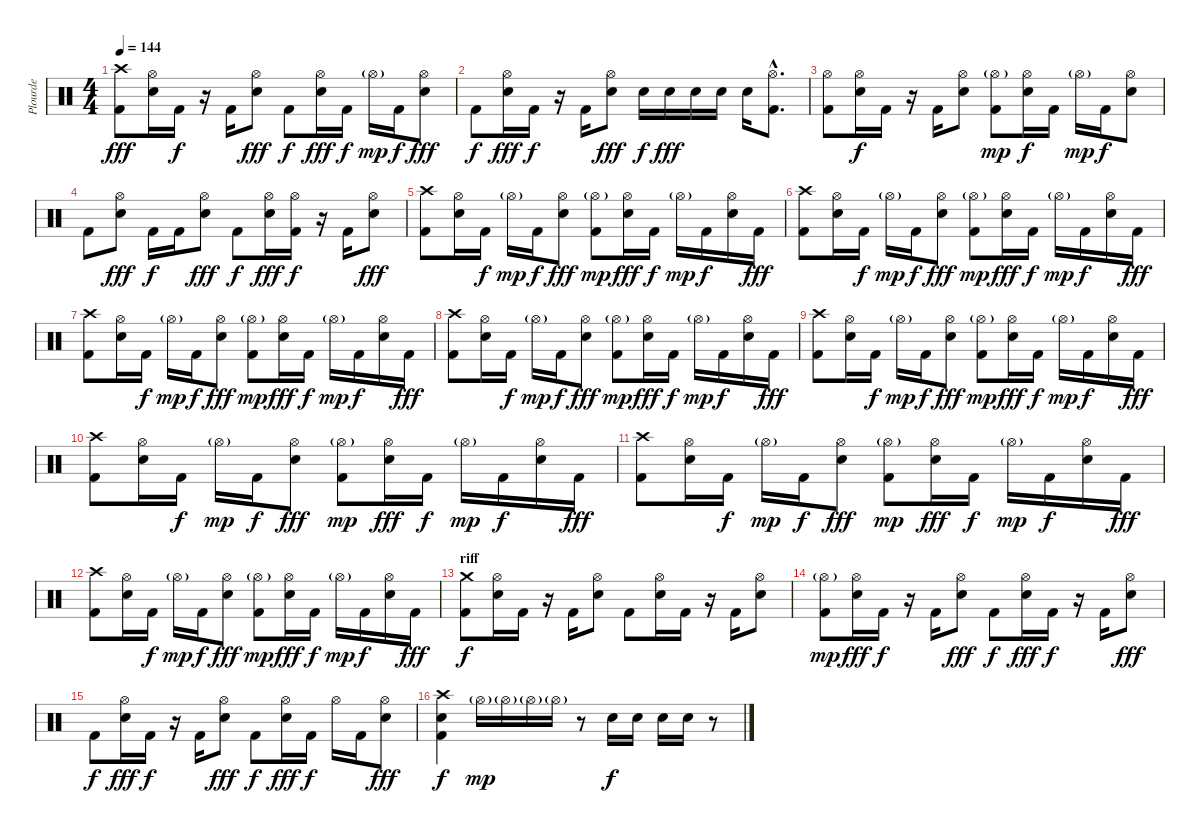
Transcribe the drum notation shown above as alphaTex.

\track ("Plourde" "Plourde") {instrument percussion}
\staff {score}
\articulation defaults
\ts (4 4)
\tempo 144
\clef neutral
\ks c
("Crash high (hit)" "Kick (hit) 2").8{dy fff} ("Hi-Hat (open)" "Electric Snare (hit)").16 "Kick (hit) 2".16{dy f} r.16 "Kick (hit) 2".16 ("Hi-Hat (open)" "Electric Snare (hit)").8{dy fff} "Kick (hit) 2".8{dy f} ("Hi-Hat (open)" "Electric Snare (hit)").16{dy fff} "Kick (hit) 2".16{dy f} "Hi-Hat (open)"{g}.16{dy mp} "Kick (hit) 2".16{dy f} ("Hi-Hat (open)" "Electric Snare (hit)").8{dy fff} |
"Kick (hit) 2".8{dy f} ("Hi-Hat (open)" "Electric Snare (hit)").16{dy fff} "Kick (hit) 2".16{dy f} r.16 "Kick (hit) 2".16 ("Hi-Hat (open)" "Electric Snare (hit)").8{dy fff} "Electric Snare (hit)".16{dy f} "Electric Snare (hit)".16{dy fff} "Electric Snare (hit)".16 "Electric Snare (hit)".16 "Electric Snare (hit)".16 ("Hi-Hat (open)"{hac} "Kick (hit) 2"{hac}).8{d} |
("Hi-Hat (open)" "Kick (hit) 2").8 ("Hi-Hat (open)" "Electric Snare (hit)").16{dy f} "Kick (hit) 2".16 r.16 "Kick (hit) 2".16 ("Hi-Hat (open)" "Electric Snare (hit)").8 ("Hi-Hat (open)"{g} "Kick (hit) 2").8{dy mp} ("Hi-Hat (open)" "Electric Snare (hit)").16{dy f} "Kick (hit) 2".16 "Hi-Hat (open)"{g}.16{dy mp} "Kick (hit) 2".16{dy f} ("Hi-Hat (open)" "Electric Snare (hit)").8 |
"Kick (hit) 2".8 ("Hi-Hat (open)" "Electric Snare (hit)").8{dy fff} "Kick (hit) 2".16{dy f} "Kick (hit) 2".16 ("Hi-Hat (open)" "Electric Snare (hit)").8{dy fff} "Kick (hit) 2".8{dy f} ("Hi-Hat (open)" "Electric Snare (hit)").16{dy fff} ("Hi-Hat (open)" "Kick (hit) 2").16{dy f} r.16 "Kick (hit) 2".16 ("Hi-Hat (open)" "Electric Snare (hit)").8{dy fff} |
("Crash high (hit)" "Kick (hit) 2").8 ("Hi-Hat (open)" "Electric Snare (hit)").16 "Kick (hit) 2".16{dy f} "Hi-Hat (open)"{g}.16{dy mp} "Kick (hit) 2".16{dy f} ("Hi-Hat (open)" "Electric Snare (hit)").8{dy fff} ("Hi-Hat (open)"{g} "Kick (hit) 2").8{dy mp} ("Hi-Hat (open)" "Electric Snare (hit)").16{dy fff} "Kick (hit) 2".16{dy f} "Hi-Hat (open)"{g}.16{dy mp} "Kick (hit) 2".16{dy f} ("Hi-Hat (open)" "Electric Snare (hit)").16 "Kick (hit) 2".16{dy fff} |
("Crash high (hit)" "Kick (hit) 2").8 ("Hi-Hat (open)" "Electric Snare (hit)").16 "Kick (hit) 2".16{dy f} "Hi-Hat (open)"{g}.16{dy mp} "Kick (hit) 2".16{dy f} ("Hi-Hat (open)" "Electric Snare (hit)").8{dy fff} ("Hi-Hat (open)"{g} "Kick (hit) 2").8{dy mp} ("Hi-Hat (open)" "Electric Snare (hit)").16{dy fff} "Kick (hit) 2".16{dy f} "Hi-Hat (open)"{g}.16{dy mp} "Kick (hit) 2".16{dy f} ("Hi-Hat (open)" "Electric Snare (hit)").16 "Kick (hit) 2".16{dy fff} |
("Crash high (hit)" "Kick (hit) 2").8 ("Hi-Hat (open)" "Electric Snare (hit)").16 "Kick (hit) 2".16{dy f} "Hi-Hat (open)"{g}.16{dy mp} "Kick (hit) 2".16{dy f} ("Hi-Hat (open)" "Electric Snare (hit)").8{dy fff} ("Hi-Hat (open)"{g} "Kick (hit) 2").8{dy mp} ("Hi-Hat (open)" "Electric Snare (hit)").16{dy fff} "Kick (hit) 2".16{dy f} "Hi-Hat (open)"{g}.16{dy mp} "Kick (hit) 2".16{dy f} ("Hi-Hat (open)" "Electric Snare (hit)").16 "Kick (hit) 2".16{dy fff} |
("Crash high (hit)" "Kick (hit) 2").8 ("Hi-Hat (open)" "Electric Snare (hit)").16 "Kick (hit) 2".16{dy f} "Hi-Hat (open)"{g}.16{dy mp} "Kick (hit) 2".16{dy f} ("Hi-Hat (open)" "Electric Snare (hit)").8{dy fff} ("Hi-Hat (open)"{g} "Kick (hit) 2").8{dy mp} ("Hi-Hat (open)" "Electric Snare (hit)").16{dy fff} "Kick (hit) 2".16{dy f} "Hi-Hat (open)"{g}.16{dy mp} "Kick (hit) 2".16{dy f} ("Hi-Hat (open)" "Electric Snare (hit)").16 "Kick (hit) 2".16{dy fff} |
("Crash high (hit)" "Kick (hit) 2").8 ("Hi-Hat (open)" "Electric Snare (hit)").16 "Kick (hit) 2".16{dy f} "Hi-Hat (open)"{g}.16{dy mp} "Kick (hit) 2".16{dy f} ("Hi-Hat (open)" "Electric Snare (hit)").8{dy fff} ("Hi-Hat (open)"{g} "Kick (hit) 2").8{dy mp} ("Hi-Hat (open)" "Electric Snare (hit)").16{dy fff} "Kick (hit) 2".16{dy f} "Hi-Hat (open)"{g}.16{dy mp} "Kick (hit) 2".16{dy f} ("Hi-Hat (open)" "Electric Snare (hit)").16 "Kick (hit) 2".16{dy fff} |
("Crash high (hit)" "Kick (hit) 2").8 ("Hi-Hat (open)" "Electric Snare (hit)").16 "Kick (hit) 2".16{dy f} "Hi-Hat (open)"{g}.16{dy mp} "Kick (hit) 2".16{dy f} ("Hi-Hat (open)" "Electric Snare (hit)").8{dy fff} ("Hi-Hat (open)"{g} "Kick (hit) 2").8{dy mp} ("Hi-Hat (open)" "Electric Snare (hit)").16{dy fff} "Kick (hit) 2".16{dy f} "Hi-Hat (open)"{g}.16{dy mp} "Kick (hit) 2".16{dy f} ("Hi-Hat (open)" "Electric Snare (hit)").16 "Kick (hit) 2".16{dy fff} |
("Crash high (hit)" "Kick (hit) 2").8 ("Hi-Hat (open)" "Electric Snare (hit)").16 "Kick (hit) 2".16{dy f} "Hi-Hat (open)"{g}.16{dy mp} "Kick (hit) 2".16{dy f} ("Hi-Hat (open)" "Electric Snare (hit)").8{dy fff} ("Hi-Hat (open)"{g} "Kick (hit) 2").8{dy mp} ("Hi-Hat (open)" "Electric Snare (hit)").16{dy fff} "Kick (hit) 2".16{dy f} "Hi-Hat (open)"{g}.16{dy mp} "Kick (hit) 2".16{dy f} ("Hi-Hat (open)" "Electric Snare (hit)").16 "Kick (hit) 2".16{dy fff} |
("Crash high (hit)" "Kick (hit) 2").8 ("Hi-Hat (open)" "Electric Snare (hit)").16 "Kick (hit) 2".16{dy f} "Hi-Hat (open)"{g}.16{dy mp} "Kick (hit) 2".16{dy f} ("Hi-Hat (open)" "Electric Snare (hit)").8{dy fff} ("Hi-Hat (open)"{g} "Kick (hit) 2").8{dy mp} ("Hi-Hat (open)" "Electric Snare (hit)").16{dy fff} "Kick (hit) 2".16{dy f} "Hi-Hat (open)"{g}.16{dy mp} "Kick (hit) 2".16{dy f} ("Hi-Hat (open)" "Electric Snare (hit)").16 "Kick (hit) 2".16{dy fff} |
\section ("" "riff")
("Crash medium (hit)" "Kick (hit) 2").8{dy f} ("Hi-Hat (open)" "Electric Snare (hit)").16 "Kick (hit) 2".16 r.16 "Kick (hit) 2".16 ("Hi-Hat (open)" "Electric Snare (hit)").8 "Kick (hit) 2".8 ("Hi-Hat (open)" "Electric Snare (hit)").16 "Kick (hit) 2".16 r.16 "Kick (hit) 2".16 ("Hi-Hat (open)" "Electric Snare (hit)").8 |
("Hi-Hat (open)"{g} "Kick (hit) 2").8{dy mp} ("Hi-Hat (open)" "Electric Snare (hit)").16{dy fff} "Kick (hit) 2".16{dy f} r.16 "Kick (hit) 2".16 ("Hi-Hat (open)" "Electric Snare (hit)").8{dy fff} "Kick (hit) 2".8{dy f} ("Hi-Hat (open)" "Electric Snare (hit)").16{dy fff} "Kick (hit) 2".16{dy f} r.16 "Kick (hit) 2".16 ("Hi-Hat (open)" "Electric Snare (hit)").8{dy fff} |
"Kick (hit) 2".8{dy f} ("Hi-Hat (open)" "Electric Snare (hit)").16{dy fff} "Kick (hit) 2".16{dy f} r.16 "Kick (hit) 2".16 ("Hi-Hat (open)" "Electric Snare (hit)").8{dy fff} "Kick (hit) 2".8{dy f} ("Hi-Hat (open)" "Electric Snare (hit)").16{dy fff} "Kick (hit) 2".16{dy f} "Hi-Hat (open)".16 "Kick (hit) 2".16 ("Hi-Hat (open)" "Electric Snare (hit)").8{dy fff} |
("Crash high (hit)" "Kick (hit) 2" "Electric Snare (hit)").4{dy f} "Hi-Hat (open)"{g}.16{dy mp} "Hi-Hat (open)"{g}.16 "Hi-Hat (open)"{g}.16 "Hi-Hat (open)"{g}.16 r.8 "Electric Snare (hit)".16{dy f} "Electric Snare (hit)".16 "Electric Snare (hit)".16 "Electric Snare (hit)".16 r.8
